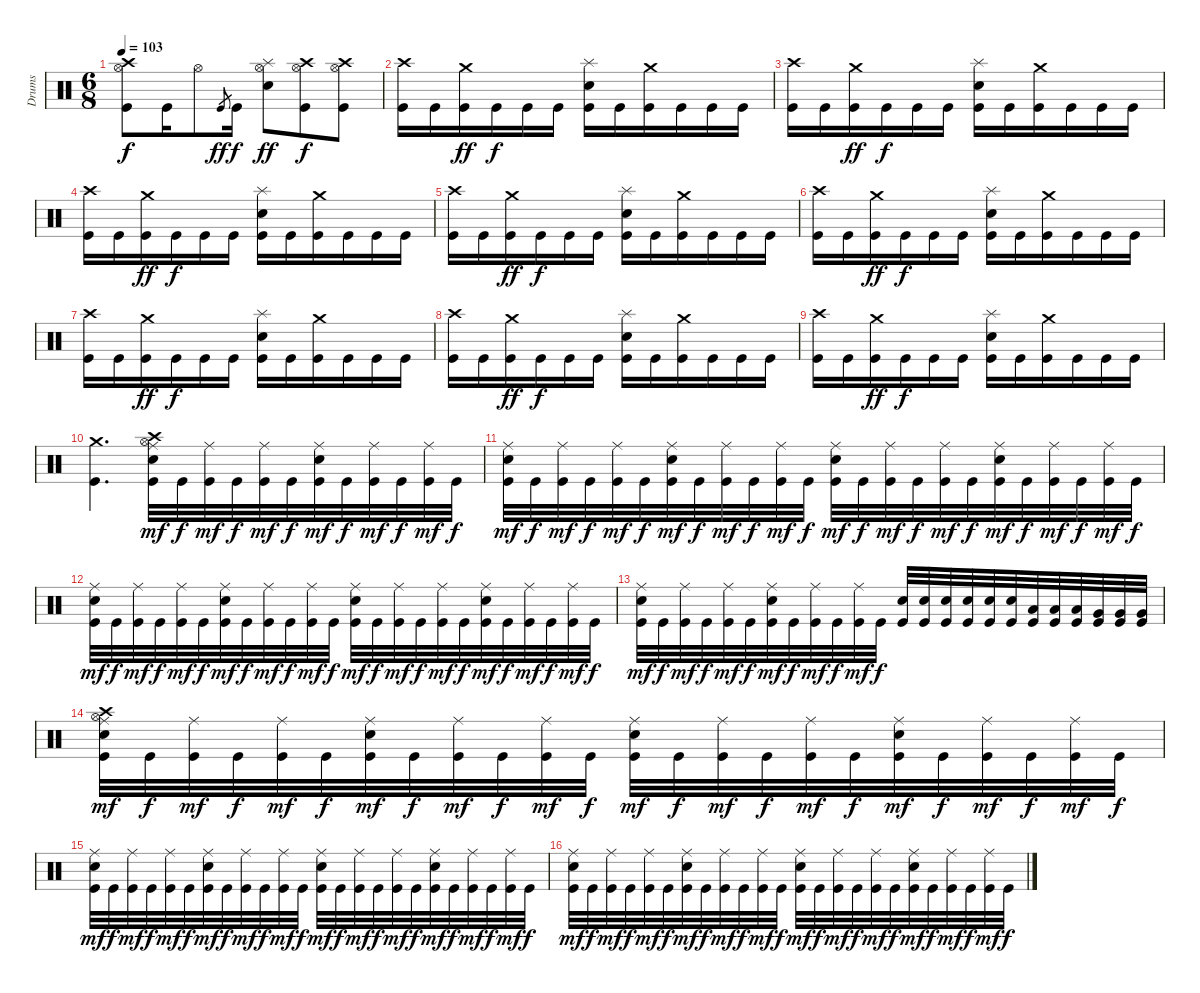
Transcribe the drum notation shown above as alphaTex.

\track ("Drums" "Drums") {instrument percussion}
\staff {score}
\articulation defaults
\ts (6 8)
\tempo 103
\clef neutral
\ks c
("Crash high (hit)" "Hi-Hat (open)" "Kick (hit)").8{dy f} "Kick (hit)".16 "Hi-Hat (open)".8 "Kick (hit)".8{gr dy ff} "Kick (hit)".16{dy f} ("Splash (hit)" "Hi-Hat (open)" "Electric Snare (hit)").8{dy ff} ("Crash high (hit)" "Hi-Hat (open)" "Kick (hit)").8{dy f} ("Crash high (hit)" "Hi-Hat (open)" "Kick (hit)").8 |
("Crash high (hit)" "Kick (hit)").16 "Kick (hit)".16 ("Crash medium (hit)" "Kick (hit)").16{dy ff} "Kick (hit)".16{dy f} "Kick (hit)".16 "Kick (hit)".16 ("Splash (hit)" "Electric Snare (hit)" "Kick (hit)").16 "Kick (hit)".16 ("Crash medium (hit)" "Kick (hit)").16 "Kick (hit)".16 "Kick (hit)".16 "Kick (hit)".16 |
("Crash high (hit)" "Kick (hit)").16 "Kick (hit)".16 ("Crash medium (hit)" "Kick (hit)").16{dy ff} "Kick (hit)".16{dy f} "Kick (hit)".16 "Kick (hit)".16 ("Splash (hit)" "Electric Snare (hit)" "Kick (hit)").16 "Kick (hit)".16 ("Crash medium (hit)" "Kick (hit)").16 "Kick (hit)".16 "Kick (hit)".16 "Kick (hit)".16 |
("Crash high (hit)" "Kick (hit)").16 "Kick (hit)".16 ("Crash medium (hit)" "Kick (hit)").16{dy ff} "Kick (hit)".16{dy f} "Kick (hit)".16 "Kick (hit)".16 ("Splash (hit)" "Electric Snare (hit)" "Kick (hit)").16 "Kick (hit)".16 ("Crash medium (hit)" "Kick (hit)").16 "Kick (hit)".16 "Kick (hit)".16 "Kick (hit)".16 |
("Crash high (hit)" "Kick (hit)").16 "Kick (hit)".16 ("Crash medium (hit)" "Kick (hit)").16{dy ff} "Kick (hit)".16{dy f} "Kick (hit)".16 "Kick (hit)".16 ("Splash (hit)" "Electric Snare (hit)" "Kick (hit)").16 "Kick (hit)".16 ("Crash medium (hit)" "Kick (hit)").16 "Kick (hit)".16 "Kick (hit)".16 "Kick (hit)".16 |
("Crash high (hit)" "Kick (hit)").16 "Kick (hit)".16 ("Crash medium (hit)" "Kick (hit)").16{dy ff} "Kick (hit)".16{dy f} "Kick (hit)".16 "Kick (hit)".16 ("Splash (hit)" "Electric Snare (hit)" "Kick (hit)").16 "Kick (hit)".16 ("Crash medium (hit)" "Kick (hit)").16 "Kick (hit)".16 "Kick (hit)".16 "Kick (hit)".16 |
("Crash high (hit)" "Kick (hit)").16 "Kick (hit)".16 ("Crash medium (hit)" "Kick (hit)").16{dy ff} "Kick (hit)".16{dy f} "Kick (hit)".16 "Kick (hit)".16 ("Splash (hit)" "Electric Snare (hit)" "Kick (hit)").16 "Kick (hit)".16 ("Crash medium (hit)" "Kick (hit)").16 "Kick (hit)".16 "Kick (hit)".16 "Kick (hit)".16 |
("Crash high (hit)" "Kick (hit)").16 "Kick (hit)".16 ("Crash medium (hit)" "Kick (hit)").16{dy ff} "Kick (hit)".16{dy f} "Kick (hit)".16 "Kick (hit)".16 ("Splash (hit)" "Electric Snare (hit)" "Kick (hit)").16 "Kick (hit)".16 ("Crash medium (hit)" "Kick (hit)").16 "Kick (hit)".16 "Kick (hit)".16 "Kick (hit)".16 |
("Crash high (hit)" "Kick (hit)").16 "Kick (hit)".16 ("Crash medium (hit)" "Kick (hit)").16{dy ff} "Kick (hit)".16{dy f} "Kick (hit)".16 "Kick (hit)".16 ("Splash (hit)" "Electric Snare (hit)" "Kick (hit)").16 "Kick (hit)".16 ("Crash medium (hit)" "Kick (hit)").16 "Kick (hit)".16 "Kick (hit)".16 "Kick (hit)".16 |
("Crash medium (hit)" "Kick (hit)").4{d} ("Hi-Hat (open)" "Crash high (hit)" "Ride (middle)" "Electric Snare (hit)" "Kick (hit)").32{dy mf} "Kick (hit)".32{dy f} ("Ride (middle)" "Kick (hit)").32{dy mf} "Kick (hit)".32{dy f} ("Ride (middle)" "Kick (hit)").32{dy mf} "Kick (hit)".32{dy f} ("Ride (middle)" "Electric Snare (hit)" "Kick (hit)").32{dy mf} "Kick (hit)".32{dy f} ("Ride (middle)" "Kick (hit)").32{dy mf} "Kick (hit)".32{dy f} ("Ride (middle)" "Kick (hit)").32{dy mf} "Kick (hit)".32{dy f} |
("Ride (middle)" "Electric Snare (hit)" "Kick (hit)").32{dy mf} "Kick (hit)".32{dy f} ("Ride (middle)" "Kick (hit)").32{dy mf} "Kick (hit)".32{dy f} ("Ride (middle)" "Kick (hit)").32{dy mf} "Kick (hit)".32{dy f} ("Ride (middle)" "Electric Snare (hit)" "Kick (hit)").32{dy mf} "Kick (hit)".32{dy f} ("Ride (middle)" "Kick (hit)").32{dy mf} "Kick (hit)".32{dy f} ("Ride (middle)" "Kick (hit)").32{dy mf} "Kick (hit)".32{dy f} ("Ride (middle)" "Electric Snare (hit)" "Kick (hit)").32{dy mf} "Kick (hit)".32{dy f} ("Ride (middle)" "Kick (hit)").32{dy mf} "Kick (hit)".32{dy f} ("Ride (middle)" "Kick (hit)").32{dy mf} "Kick (hit)".32{dy f} ("Ride (middle)" "Electric Snare (hit)" "Kick (hit)").32{dy mf} "Kick (hit)".32{dy f} ("Ride (middle)" "Kick (hit)").32{dy mf} "Kick (hit)".32{dy f} ("Ride (middle)" "Kick (hit)").32{dy mf} "Kick (hit)".32{dy f} |
("Ride (middle)" "Electric Snare (hit)" "Kick (hit)").32{dy mf} "Kick (hit)".32{dy f} ("Ride (middle)" "Kick (hit)").32{dy mf} "Kick (hit)".32{dy f} ("Ride (middle)" "Kick (hit)").32{dy mf} "Kick (hit)".32{dy f} ("Ride (middle)" "Electric Snare (hit)" "Kick (hit)").32{dy mf} "Kick (hit)".32{dy f} ("Ride (middle)" "Kick (hit)").32{dy mf} "Kick (hit)".32{dy f} ("Ride (middle)" "Kick (hit)").32{dy mf} "Kick (hit)".32{dy f} ("Ride (middle)" "Electric Snare (hit)" "Kick (hit)").32{dy mf} "Kick (hit)".32{dy f} ("Ride (middle)" "Kick (hit)").32{dy mf} "Kick (hit)".32{dy f} ("Ride (middle)" "Kick (hit)").32{dy mf} "Kick (hit)".32{dy f} ("Ride (middle)" "Electric Snare (hit)" "Kick (hit)").32{dy mf} "Kick (hit)".32{dy f} ("Ride (middle)" "Kick (hit)").32{dy mf} "Kick (hit)".32{dy f} ("Ride (middle)" "Kick (hit)").32{dy mf} "Kick (hit)".32{dy f} |
("Ride (middle)" "Electric Snare (hit)" "Kick (hit)").32{dy mf} "Kick (hit)".32{dy f} ("Ride (middle)" "Kick (hit)").32{dy mf} "Kick (hit)".32{dy f} ("Ride (middle)" "Kick (hit)").32{dy mf} "Kick (hit)".32{dy f} ("Ride (middle)" "Electric Snare (hit)" "Kick (hit)").32{dy mf} "Kick (hit)".32{dy f} ("Ride (middle)" "Kick (hit)").32{dy mf} "Kick (hit)".32{dy f} ("Ride (middle)" "Kick (hit)").32{dy mf} "Kick (hit)".32{dy f} ("Electric Snare (hit)" "Kick (hit)").32 ("Electric Snare (hit)" "Kick (hit)").32 ("Electric Snare (hit)" "Kick (hit)").32 ("Electric Snare (hit)" "Kick (hit)").32 ("Electric Snare (hit)" "Kick (hit)").32 ("Electric Snare (hit)" "Kick (hit)").32 ("Low Tom (hit)" "Kick (hit)").32 ("Low Tom (hit)" "Kick (hit)").32 ("Low Tom (hit)" "Kick (hit)").32 ("Very Low Tom (hit)" "Kick (hit)").32 ("Very Low Tom (hit)" "Kick (hit)").32 ("Very Low Tom (hit)" "Kick (hit)").32 |
("Crash high (hit)" "Hi-Hat (open)" "Ride (middle)" "Electric Snare (hit)" "Kick (hit)").32{dy mf} "Kick (hit)".32{dy f} ("Ride (middle)" "Kick (hit)").32{dy mf} "Kick (hit)".32{dy f} ("Ride (middle)" "Kick (hit)").32{dy mf} "Kick (hit)".32{dy f} ("Ride (middle)" "Electric Snare (hit)" "Kick (hit)").32{dy mf} "Kick (hit)".32{dy f} ("Ride (middle)" "Kick (hit)").32{dy mf} "Kick (hit)".32{dy f} ("Ride (middle)" "Kick (hit)").32{dy mf} "Kick (hit)".32{dy f} ("Ride (middle)" "Electric Snare (hit)" "Kick (hit)").32{dy mf} "Kick (hit)".32{dy f} ("Ride (middle)" "Kick (hit)").32{dy mf} "Kick (hit)".32{dy f} ("Ride (middle)" "Kick (hit)").32{dy mf} "Kick (hit)".32{dy f} ("Ride (middle)" "Electric Snare (hit)" "Kick (hit)").32{dy mf} "Kick (hit)".32{dy f} ("Ride (middle)" "Kick (hit)").32{dy mf} "Kick (hit)".32{dy f} ("Ride (middle)" "Kick (hit)").32{dy mf} "Kick (hit)".32{dy f} |
("Ride (middle)" "Electric Snare (hit)" "Kick (hit)").32{dy mf} "Kick (hit)".32{dy f} ("Ride (middle)" "Kick (hit)").32{dy mf} "Kick (hit)".32{dy f} ("Ride (middle)" "Kick (hit)").32{dy mf} "Kick (hit)".32{dy f} ("Ride (middle)" "Electric Snare (hit)" "Kick (hit)").32{dy mf} "Kick (hit)".32{dy f} ("Ride (middle)" "Kick (hit)").32{dy mf} "Kick (hit)".32{dy f} ("Ride (middle)" "Kick (hit)").32{dy mf} "Kick (hit)".32{dy f} ("Ride (middle)" "Electric Snare (hit)" "Kick (hit)").32{dy mf} "Kick (hit)".32{dy f} ("Ride (middle)" "Kick (hit)").32{dy mf} "Kick (hit)".32{dy f} ("Ride (middle)" "Kick (hit)").32{dy mf} "Kick (hit)".32{dy f} ("Ride (middle)" "Electric Snare (hit)" "Kick (hit)").32{dy mf} "Kick (hit)".32{dy f} ("Ride (middle)" "Kick (hit)").32{dy mf} "Kick (hit)".32{dy f} ("Ride (middle)" "Kick (hit)").32{dy mf} "Kick (hit)".32{dy f} |
("Ride (middle)" "Electric Snare (hit)" "Kick (hit)").32{dy mf} "Kick (hit)".32{dy f} ("Ride (middle)" "Kick (hit)").32{dy mf} "Kick (hit)".32{dy f} ("Ride (middle)" "Kick (hit)").32{dy mf} "Kick (hit)".32{dy f} ("Ride (middle)" "Electric Snare (hit)" "Kick (hit)").32{dy mf} "Kick (hit)".32{dy f} ("Ride (middle)" "Kick (hit)").32{dy mf} "Kick (hit)".32{dy f} ("Ride (middle)" "Kick (hit)").32{dy mf} "Kick (hit)".32{dy f} ("Ride (middle)" "Electric Snare (hit)" "Kick (hit)").32{dy mf} "Kick (hit)".32{dy f} ("Ride (middle)" "Kick (hit)").32{dy mf} "Kick (hit)".32{dy f} ("Ride (middle)" "Kick (hit)").32{dy mf} "Kick (hit)".32{dy f} ("Ride (middle)" "Electric Snare (hit)" "Kick (hit)").32{dy mf} "Kick (hit)".32{dy f} ("Ride (middle)" "Kick (hit)").32{dy mf} "Kick (hit)".32{dy f} ("Ride (middle)" "Kick (hit)").32{dy mf} "Kick (hit)".32{dy f}
